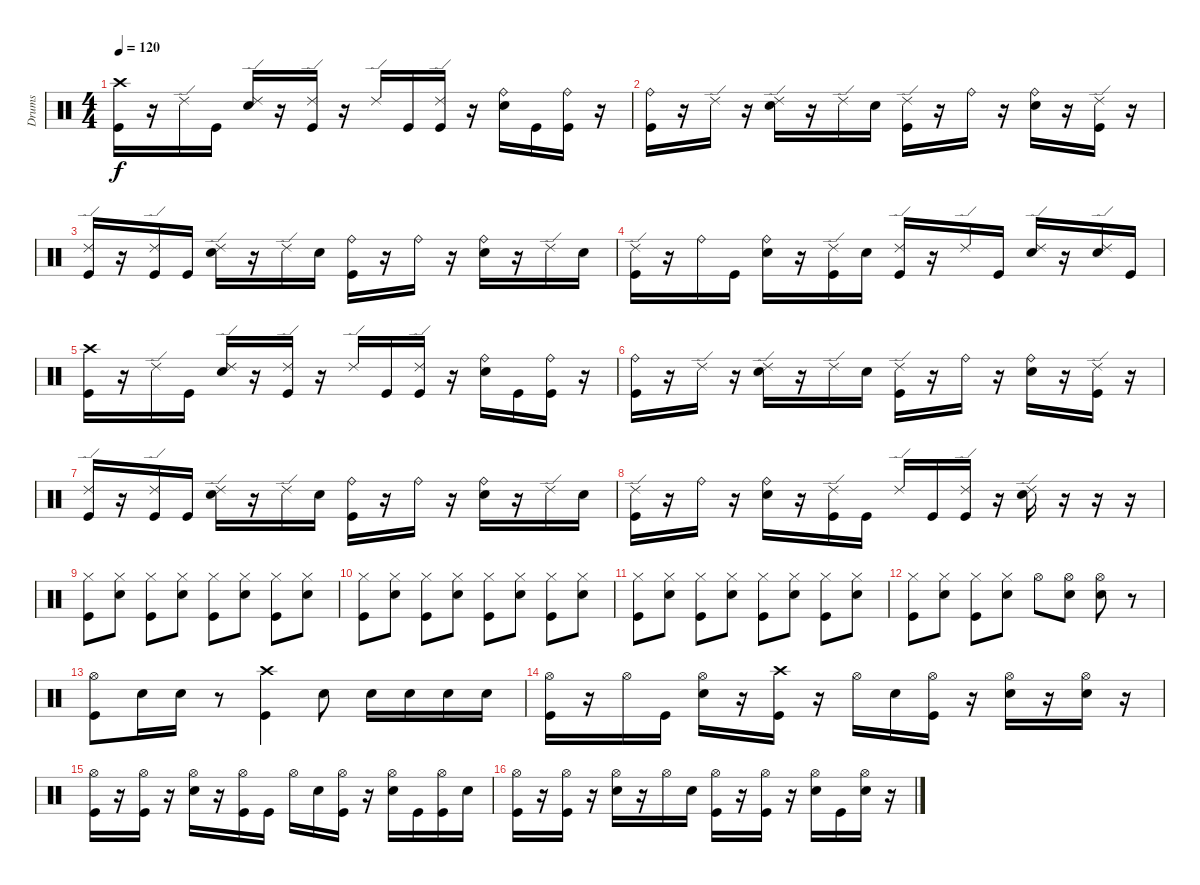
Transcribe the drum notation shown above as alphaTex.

\track ("Drums" "Drums") {instrument percussion}
\staff {score}
\articulation defaults
\ts (4 4)
\tempo 120
\clef neutral
\ks c
("Crash high (hit)" "Kick (hit)").16{dy f} r.16 "Ride (edge) 2".16 "Kick (hit)".16 ("Ride (edge) 2" "Electric Snare (hit)").16 r.16 ("Ride (edge) 2" "Kick (hit)").16 r.16 "Ride (edge) 2".16 "Kick (hit)".16 ("Ride (edge) 2" "Kick (hit)").16 r.16 ("Ride (bell)" "Electric Snare (hit)").16 "Kick (hit)".16 ("Ride (bell)" "Kick (hit)").16 r.16 |
("Ride (bell)" "Kick (hit)").16 r.16 "Ride (edge) 2".16 r.16 ("Ride (edge) 2" "Electric Snare (hit)").16 r.16 "Ride (edge) 2".16 "Electric Snare (hit)".16 ("Ride (edge) 2" "Kick (hit)").16 r.16 "Ride (bell)".16 r.16 ("Ride (bell)" "Electric Snare (hit)").16 r.16 ("Ride (edge) 2" "Kick (hit)").16 r.16 |
("Ride (edge) 2" "Kick (hit)").16 r.16 ("Ride (edge) 2" "Kick (hit)").16 "Kick (hit)".16 ("Ride (edge) 2" "Electric Snare (hit)").16 r.16 "Ride (edge) 2".16 "Electric Snare (hit)".16 ("Ride (bell)" "Kick (hit)").16 r.16 "Ride (bell)".16 r.16 ("Ride (bell)" "Electric Snare (hit)").16 r.16 "Ride (edge) 2".16 "Electric Snare (hit)".16 |
("Ride (edge) 2" "Kick (hit)").16 r.16 "Ride (bell)".16 "Kick (hit)".16 ("Ride (bell)" "Electric Snare (hit)").16 r.16 ("Ride (edge) 2" "Kick (hit)").16 "Electric Snare (hit)".16 ("Ride (edge) 2" "Kick (hit)").16 r.16 "Ride (edge) 2".16 "Kick (hit)".16 ("Ride (edge) 2" "Electric Snare (hit)").16 r.16 ("Ride (edge) 2" "Electric Snare (hit)").16 "Kick (hit)".16 |
("Crash high (hit)" "Kick (hit)").16 r.16 "Ride (edge) 2".16 "Kick (hit)".16 ("Ride (edge) 2" "Electric Snare (hit)").16 r.16 ("Ride (edge) 2" "Kick (hit)").16 r.16 "Ride (edge) 2".16 "Kick (hit)".16 ("Ride (edge) 2" "Kick (hit)").16 r.16 ("Ride (bell)" "Electric Snare (hit)").16 "Kick (hit)".16 ("Ride (bell)" "Kick (hit)").16 r.16 |
("Ride (bell)" "Kick (hit)").16 r.16 "Ride (edge) 2".16 r.16 ("Ride (edge) 2" "Electric Snare (hit)").16 r.16 "Ride (edge) 2".16 "Electric Snare (hit)".16 ("Ride (edge) 2" "Kick (hit)").16 r.16 "Ride (bell)".16 r.16 ("Ride (bell)" "Electric Snare (hit)").16 r.16 ("Ride (edge) 2" "Kick (hit)").16 r.16 |
("Ride (edge) 2" "Kick (hit)").16 r.16 ("Ride (edge) 2" "Kick (hit)").16 "Kick (hit)".16 ("Ride (edge) 2" "Electric Snare (hit)").16 r.16 "Ride (edge) 2".16 "Electric Snare (hit)".16 ("Ride (bell)" "Kick (hit)").16 r.16 "Ride (bell)".16 r.16 ("Ride (bell)" "Electric Snare (hit)").16 r.16 "Ride (edge) 2".16 "Electric Snare (hit)".16 |
("Ride (edge) 2" "Kick (hit)").16 r.16 "Ride (bell)".16 r.16 ("Ride (bell)" "Electric Snare (hit)").16 r.16 ("Ride (edge) 2" "Kick (hit)").16 "Kick (hit)".16 "Ride (edge) 2".16 "Kick (hit)".16 ("Ride (edge) 2" "Kick (hit)").16 r.16 ("Ride (edge) 2" "Electric Snare (hit)").16 r.16 r.16 r.16 |
("Hi-Hat (closed)" "Kick (hit)").8 ("Hi-Hat (closed)" "Electric Snare (hit)").8 ("Hi-Hat (closed)" "Kick (hit)").8 ("Hi-Hat (closed)" "Electric Snare (hit)").8 ("Hi-Hat (closed)" "Kick (hit)").8 ("Hi-Hat (closed)" "Electric Snare (hit)").8 ("Hi-Hat (closed)" "Kick (hit)").8 ("Hi-Hat (closed)" "Electric Snare (hit)").8 |
("Hi-Hat (closed)" "Kick (hit)").8 ("Hi-Hat (closed)" "Electric Snare (hit)").8 ("Hi-Hat (closed)" "Kick (hit)").8 ("Hi-Hat (closed)" "Electric Snare (hit)").8 ("Hi-Hat (closed)" "Kick (hit)").8 ("Hi-Hat (closed)" "Electric Snare (hit)").8 ("Hi-Hat (closed)" "Kick (hit)").8 ("Hi-Hat (closed)" "Electric Snare (hit)").8 |
("Hi-Hat (closed)" "Kick (hit)").8 ("Hi-Hat (closed)" "Electric Snare (hit)").8 ("Hi-Hat (closed)" "Kick (hit)").8 ("Hi-Hat (closed)" "Electric Snare (hit)").8 ("Hi-Hat (closed)" "Kick (hit)").8 ("Hi-Hat (closed)" "Electric Snare (hit)").8 ("Hi-Hat (closed)" "Kick (hit)").8 ("Hi-Hat (closed)" "Electric Snare (hit)").8 |
("Hi-Hat (closed)" "Kick (hit)").8 ("Hi-Hat (closed)" "Electric Snare (hit)").8 ("Hi-Hat (closed)" "Kick (hit)").8 ("Hi-Hat (closed)" "Electric Snare (hit)").8 "Hi-Hat (open)".8 ("Hi-Hat (open)" "Electric Snare (hit)").8 ("Hi-Hat (open)" "Electric Snare (hit)").8 r.8 |
("Hi-Hat (open)" "Kick (hit)").8 "Electric Snare (hit)".16 "Electric Snare (hit)".16 r.8 ("Crash high (hit)" "Kick (hit)").4 "Electric Snare (hit)".8 "Electric Snare (hit)".16 "Electric Snare (hit)".16 "Electric Snare (hit)".16 "Electric Snare (hit)".16 |
("Hi-Hat (open)" "Kick (hit)").16 r.16 "Hi-Hat (open)".16 "Kick (hit)".16 ("Hi-Hat (open)" "Electric Snare (hit)").16 r.16 ("Crash high (hit)" "Kick (hit)").16 r.16 "Hi-Hat (open)".16 "Electric Snare (hit)".16 ("Hi-Hat (open)" "Kick (hit)").16 r.16 ("Hi-Hat (open)" "Electric Snare (hit)").16 r.16 ("Hi-Hat (open)" "Electric Snare (hit)").16 r.16 |
("Hi-Hat (open)" "Kick (hit)").16 r.16 ("Hi-Hat (open)" "Kick (hit)").16 r.16 ("Hi-Hat (open)" "Electric Snare (hit)").16 r.16 ("Hi-Hat (open)" "Kick (hit)").16 "Kick (hit)".16 "Hi-Hat (open)".16 "Electric Snare (hit)".16 ("Hi-Hat (open)" "Kick (hit)").16 r.16 ("Hi-Hat (open)" "Electric Snare (hit)").16 "Kick (hit)".16 ("Hi-Hat (open)" "Kick (hit)").16 "Electric Snare (hit)".16 |
("Hi-Hat (open)" "Kick (hit)").16 r.16 ("Hi-Hat (open)" "Kick (hit)").16 r.16 ("Hi-Hat (open)" "Electric Snare (hit)").16 r.16 "Hi-Hat (open)".16 "Electric Snare (hit)".16 ("Hi-Hat (open)" "Kick (hit)").16 r.16 ("Hi-Hat (open)" "Kick (hit)").16 r.16 ("Hi-Hat (open)" "Electric Snare (hit)").16 "Kick (hit)".16 ("Hi-Hat (open)" "Electric Snare (hit)").16 r.16
